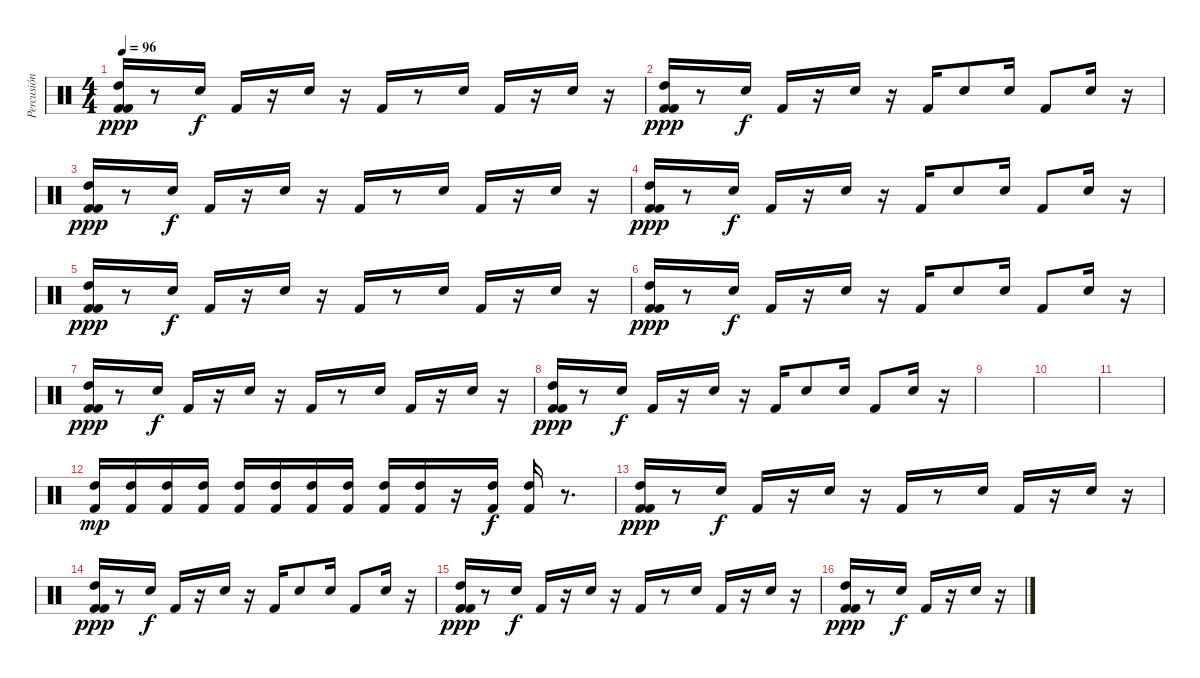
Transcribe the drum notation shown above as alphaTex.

\track ("Percusión" "Percusión") {instrument percussion}
\staff {score}
\articulation defaults
\ts (4 4)
\tempo 96
\clef neutral
\ks c
("Kick (hit) 2" "High Tom (hit)" "Kick (hit) 2").16{dy ppp} r.8 "Snare (hit) 2".16{dy f} "Kick (hit) 2".16 r.16 "Snare (hit) 2".16 r.16 "Kick (hit) 2".16 r.8 "Snare (hit) 2".16 "Kick (hit) 2".16 r.16 "Snare (hit) 2".16 r.16 |
("Kick (hit) 2" "High Tom (hit)" "Kick (hit) 2").16{dy ppp} r.8 "Snare (hit) 2".16{dy f} "Kick (hit) 2".16 r.16 "Snare (hit) 2".16 r.16 "Kick (hit) 2".16 "Snare (hit) 2".8 "Snare (hit) 2".16 "Kick (hit) 2".8 "Snare (hit) 2".16 r.16 |
("Kick (hit) 2" "High Tom (hit)" "Kick (hit) 2").16{dy ppp} r.8 "Snare (hit) 2".16{dy f} "Kick (hit) 2".16 r.16 "Snare (hit) 2".16 r.16 "Kick (hit) 2".16 r.8 "Snare (hit) 2".16 "Kick (hit) 2".16 r.16 "Snare (hit) 2".16 r.16 |
("Kick (hit) 2" "High Tom (hit)" "Kick (hit) 2").16{dy ppp} r.8 "Snare (hit) 2".16{dy f} "Kick (hit) 2".16 r.16 "Snare (hit) 2".16 r.16 "Kick (hit) 2".16 "Snare (hit) 2".8 "Snare (hit) 2".16 "Kick (hit) 2".8 "Snare (hit) 2".16 r.16 |
("Kick (hit) 2" "High Tom (hit)" "Kick (hit) 2").16{dy ppp} r.8 "Snare (hit) 2".16{dy f} "Kick (hit) 2".16 r.16 "Snare (hit) 2".16 r.16 "Kick (hit) 2".16 r.8 "Snare (hit) 2".16 "Kick (hit) 2".16 r.16 "Snare (hit) 2".16 r.16 |
("Kick (hit) 2" "High Tom (hit)" "Kick (hit) 2").16{dy ppp} r.8 "Snare (hit) 2".16{dy f} "Kick (hit) 2".16 r.16 "Snare (hit) 2".16 r.16 "Kick (hit) 2".16 "Snare (hit) 2".8 "Snare (hit) 2".16 "Kick (hit) 2".8 "Snare (hit) 2".16 r.16 |
("Kick (hit) 2" "High Tom (hit)" "Kick (hit) 2").16{dy ppp} r.8 "Snare (hit) 2".16{dy f} "Kick (hit) 2".16 r.16 "Snare (hit) 2".16 r.16 "Kick (hit) 2".16 r.8 "Snare (hit) 2".16 "Kick (hit) 2".16 r.16 "Snare (hit) 2".16 r.16 |
("Kick (hit) 2" "High Tom (hit)" "Kick (hit) 2").16{dy ppp} r.8 "Snare (hit) 2".16{dy f} "Kick (hit) 2".16 r.16 "Snare (hit) 2".16 r.16 "Kick (hit) 2".16 "Snare (hit) 2".8 "Snare (hit) 2".16 "Kick (hit) 2".8 "Snare (hit) 2".16 r.16 |
|
|
|
("High Tom (hit)" "Kick (hit) 2").16{dy mp} ("High Tom (hit)" "Kick (hit) 2").16 ("High Tom (hit)" "Kick (hit) 2").16 ("High Tom (hit)" "Kick (hit) 2").16 ("High Tom (hit)" "Kick (hit) 2").16 ("High Tom (hit)" "Kick (hit) 2").16 ("High Tom (hit)" "Kick (hit) 2").16 ("High Tom (hit)" "Kick (hit) 2").16 ("High Tom (hit)" "Kick (hit) 2").16 ("High Tom (hit)" "Kick (hit) 2").16 r.16 ("High Tom (hit)" "Kick (hit) 2").16{dy f} ("High Tom (hit)" "Kick (hit) 2").16 r.8{d} |
("Kick (hit) 2" "High Tom (hit)" "Kick (hit) 2").16{dy ppp} r.8 "Snare (hit) 2".16{dy f} "Kick (hit) 2".16 r.16 "Snare (hit) 2".16 r.16 "Kick (hit) 2".16 r.8 "Snare (hit) 2".16 "Kick (hit) 2".16 r.16 "Snare (hit) 2".16 r.16 |
("Kick (hit) 2" "High Tom (hit)" "Kick (hit) 2").16{dy ppp} r.8 "Snare (hit) 2".16{dy f} "Kick (hit) 2".16 r.16 "Snare (hit) 2".16 r.16 "Kick (hit) 2".16 "Snare (hit) 2".8 "Snare (hit) 2".16 "Kick (hit) 2".8 "Snare (hit) 2".16 r.16 |
("Kick (hit) 2" "High Tom (hit)" "Kick (hit) 2").16{dy ppp} r.8 "Snare (hit) 2".16{dy f} "Kick (hit) 2".16 r.16 "Snare (hit) 2".16 r.16 "Kick (hit) 2".16 r.8 "Snare (hit) 2".16 "Kick (hit) 2".16 r.16 "Snare (hit) 2".16 r.16 |
("Kick (hit) 2" "High Tom (hit)" "Kick (hit) 2").16{dy ppp} r.8 "Snare (hit) 2".16{dy f} "Kick (hit) 2".16 r.16 "Snare (hit) 2".16 r.16
